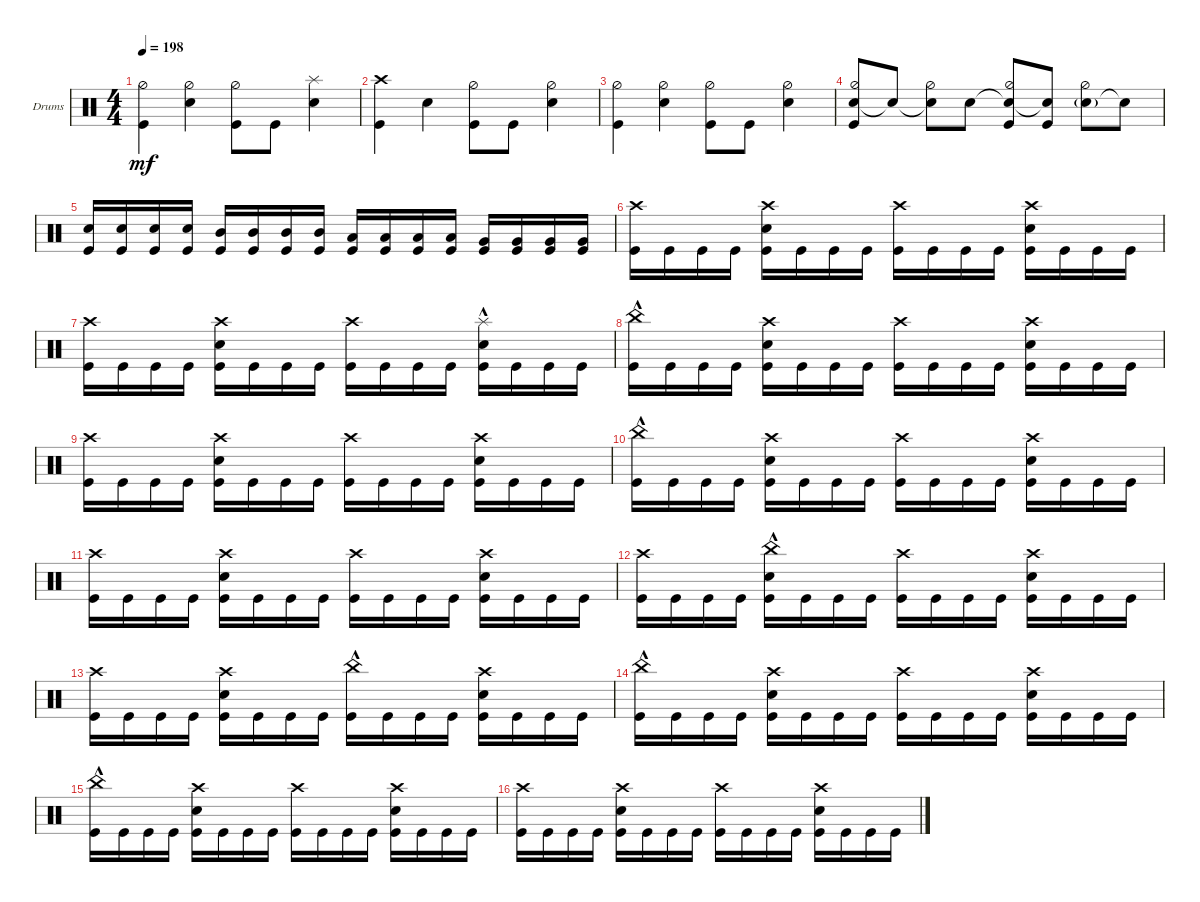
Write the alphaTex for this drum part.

\bracketExtendMode groupsimilarinstruments
\firstSystemTrackNameOrientation horizontal
\otherSystemsTrackNameOrientation horizontal
\track ("Drumkit" "Drums") {instrument percussion}
\staff {score}
\articulation defaults
\ts (4 4)
\tempo 198
\clef neutral
\ks c
("Kick (hit)" "Hi-Hat (half)").4{dy mf} ("Snare (hit) 2" "Hi-Hat (half)").4 ("Kick (hit)" "Hi-Hat (half)").8 "Kick (hit)".8 ("Snare (hit) 2" "Splash (hit)").4 |
("Kick (hit)" "Crash high (hit)").4 "Snare (hit) 2".4 ("Kick (hit)" "Hi-Hat (half)").8 "Kick (hit)".8 ("Snare (hit) 2" "Hi-Hat (half)").4 |
("Kick (hit)" "Hi-Hat (half)").4 ("Snare (hit) 2" "Hi-Hat (half)").4 ("Kick (hit)" "Hi-Hat (half)").8 "Kick (hit)".8 ("Snare (hit) 2" "Hi-Hat (half)").4 |
("Snare (hit) 2" "Hi-Hat (half)" "Kick (hit)").8 "Snare (hit) 2"{t}.8 ("Snare (hit) 2"{t} "Hi-Hat (half)").8 "Snare (hit) 2".8 ("Snare (hit) 2"{t} "Hi-Hat (half)" "Kick (hit)").8 ("Snare (hit) 2"{t} "Kick (hit)").8 ("Snare (hit) 2"{g} "Hi-Hat (half)").8 "Snare (hit) 2"{t}.8 |
("Snare (hit) 2" "Kick (hit)").16 ("Snare (hit) 2" "Kick (hit)").16 ("Snare (hit) 2" "Kick (hit)").16 ("Snare (hit) 2" "Kick (hit)").16 ("Mid Tom (hit)" "Kick (hit)").16 ("Mid Tom (hit)" "Kick (hit)").16 ("Mid Tom (hit)" "Kick (hit)").16 ("Mid Tom (hit)" "Kick (hit)").16 ("Low Tom (hit)" "Kick (hit)").16 ("Low Tom (hit)" "Kick (hit)").16 ("Low Tom (hit)" "Kick (hit)").16 ("Low Tom (hit)" "Kick (hit)").16 ("Very Low Tom (hit)" "Kick (hit)").16 ("Very Low Tom (hit)" "Kick (hit)").16 ("Very Low Tom (hit)" "Kick (hit)").16 ("Very Low Tom (hit)" "Kick (hit)").16 |
\section ("" "")
("Kick (hit)" "Crash high (hit)").16 "Kick (hit)".16 "Kick (hit)".16 "Kick (hit)".16 ("Kick (hit)" "Snare (hit) 2" "Crash high (hit)").16 "Kick (hit)".16 "Kick (hit)".16 "Kick (hit)".16 ("Kick (hit)" "Crash high (hit)").16 "Kick (hit)".16 "Kick (hit)".16 "Kick (hit)".16 ("Kick (hit)" "Snare (hit) 2" "Crash high (hit)").16 "Kick (hit)".16 "Kick (hit)".16 "Kick (hit)".16 |
("Kick (hit)" "Crash high (hit)").16 "Kick (hit)".16 "Kick (hit)".16 "Kick (hit)".16 ("Kick (hit)" "Snare (hit) 2" "Crash high (hit)").16 "Kick (hit)".16 "Kick (hit)".16 "Kick (hit)".16 ("Kick (hit)" "Crash high (hit)").16 "Kick (hit)".16 "Kick (hit)".16 "Kick (hit)".16 ("Kick (hit)" "Snare (hit) 2" "Splash (hit)"{hac}).16 "Kick (hit)".16 "Kick (hit)".16 "Kick (hit)".16 |
("Kick (hit)" "China (hit)"{hac}).16 "Kick (hit)".16 "Kick (hit)".16 "Kick (hit)".16 ("Kick (hit)" "Snare (hit) 2" "Crash high (hit)").16 "Kick (hit)".16 "Kick (hit)".16 "Kick (hit)".16 ("Kick (hit)" "Crash high (hit)").16 "Kick (hit)".16 "Kick (hit)".16 "Kick (hit)".16 ("Kick (hit)" "Snare (hit) 2" "Crash high (hit)").16 "Kick (hit)".16 "Kick (hit)".16 "Kick (hit)".16 |
("Kick (hit)" "Crash high (hit)").16 "Kick (hit)".16 "Kick (hit)".16 "Kick (hit)".16 ("Kick (hit)" "Snare (hit) 2" "Crash high (hit)").16 "Kick (hit)".16 "Kick (hit)".16 "Kick (hit)".16 ("Kick (hit)" "Crash high (hit)").16 "Kick (hit)".16 "Kick (hit)".16 "Kick (hit)".16 ("Kick (hit)" "Snare (hit) 2" "Crash high (hit)").16 "Kick (hit)".16 "Kick (hit)".16 "Kick (hit)".16 |
("Kick (hit)" "China (hit)"{hac}).16 "Kick (hit)".16 "Kick (hit)".16 "Kick (hit)".16 ("Kick (hit)" "Snare (hit) 2" "Crash high (hit)").16 "Kick (hit)".16 "Kick (hit)".16 "Kick (hit)".16 ("Kick (hit)" "Crash high (hit)").16 "Kick (hit)".16 "Kick (hit)".16 "Kick (hit)".16 ("Kick (hit)" "Snare (hit) 2" "Crash high (hit)").16 "Kick (hit)".16 "Kick (hit)".16 "Kick (hit)".16 |
("Kick (hit)" "Crash high (hit)").16 "Kick (hit)".16 "Kick (hit)".16 "Kick (hit)".16 ("Kick (hit)" "Snare (hit) 2" "Crash high (hit)").16 "Kick (hit)".16 "Kick (hit)".16 "Kick (hit)".16 ("Kick (hit)" "Crash high (hit)").16 "Kick (hit)".16 "Kick (hit)".16 "Kick (hit)".16 ("Kick (hit)" "Snare (hit) 2" "Crash high (hit)").16 "Kick (hit)".16 "Kick (hit)".16 "Kick (hit)".16 |
("Kick (hit)" "Crash high (hit)").16 "Kick (hit)".16 "Kick (hit)".16 "Kick (hit)".16 ("Kick (hit)" "Snare (hit) 2" "China (hit)"{hac}).16 "Kick (hit)".16 "Kick (hit)".16 "Kick (hit)".16 ("Kick (hit)" "Crash high (hit)").16 "Kick (hit)".16 "Kick (hit)".16 "Kick (hit)".16 ("Kick (hit)" "Snare (hit) 2" "Crash high (hit)").16 "Kick (hit)".16 "Kick (hit)".16 "Kick (hit)".16 |
("Kick (hit)" "Crash high (hit)").16 "Kick (hit)".16 "Kick (hit)".16 "Kick (hit)".16 ("Kick (hit)" "Snare (hit) 2" "Crash high (hit)").16 "Kick (hit)".16 "Kick (hit)".16 "Kick (hit)".16 ("Kick (hit)" "China (hit)"{hac}).16 "Kick (hit)".16 "Kick (hit)".16 "Kick (hit)".16 ("Kick (hit)" "Snare (hit) 2" "Crash high (hit)").16 "Kick (hit)".16 "Kick (hit)".16 "Kick (hit)".16 |
\section ("" "")
("Kick (hit)" "China (hit)"{hac}).16 "Kick (hit)".16 "Kick (hit)".16 "Kick (hit)".16 ("Kick (hit)" "Snare (hit) 2" "Crash high (hit)").16 "Kick (hit)".16 "Kick (hit)".16 "Kick (hit)".16 ("Kick (hit)" "Crash high (hit)").16 "Kick (hit)".16 "Kick (hit)".16 "Kick (hit)".16 ("Kick (hit)" "Snare (hit) 2" "Crash high (hit)").16 "Kick (hit)".16 "Kick (hit)".16 "Kick (hit)".16 |
("Kick (hit)" "China (hit)"{hac}).16 "Kick (hit)".16 "Kick (hit)".16 "Kick (hit)".16 ("Kick (hit)" "Snare (hit) 2" "Crash high (hit)").16 "Kick (hit)".16 "Kick (hit)".16 "Kick (hit)".16 ("Kick (hit)" "Crash high (hit)").16 "Kick (hit)".16 "Kick (hit)".16 "Kick (hit)".16 ("Kick (hit)" "Snare (hit) 2" "Crash high (hit)").16 "Kick (hit)".16 "Kick (hit)".16 "Kick (hit)".16 |
("Kick (hit)" "Crash high (hit)").16 "Kick (hit)".16 "Kick (hit)".16 "Kick (hit)".16 ("Kick (hit)" "Snare (hit) 2" "Crash high (hit)").16 "Kick (hit)".16 "Kick (hit)".16 "Kick (hit)".16 ("Kick (hit)" "Crash high (hit)").16 "Kick (hit)".16 "Kick (hit)".16 "Kick (hit)".16 ("Kick (hit)" "Snare (hit) 2" "Crash high (hit)").16 "Kick (hit)".16 "Kick (hit)".16 "Kick (hit)".16
